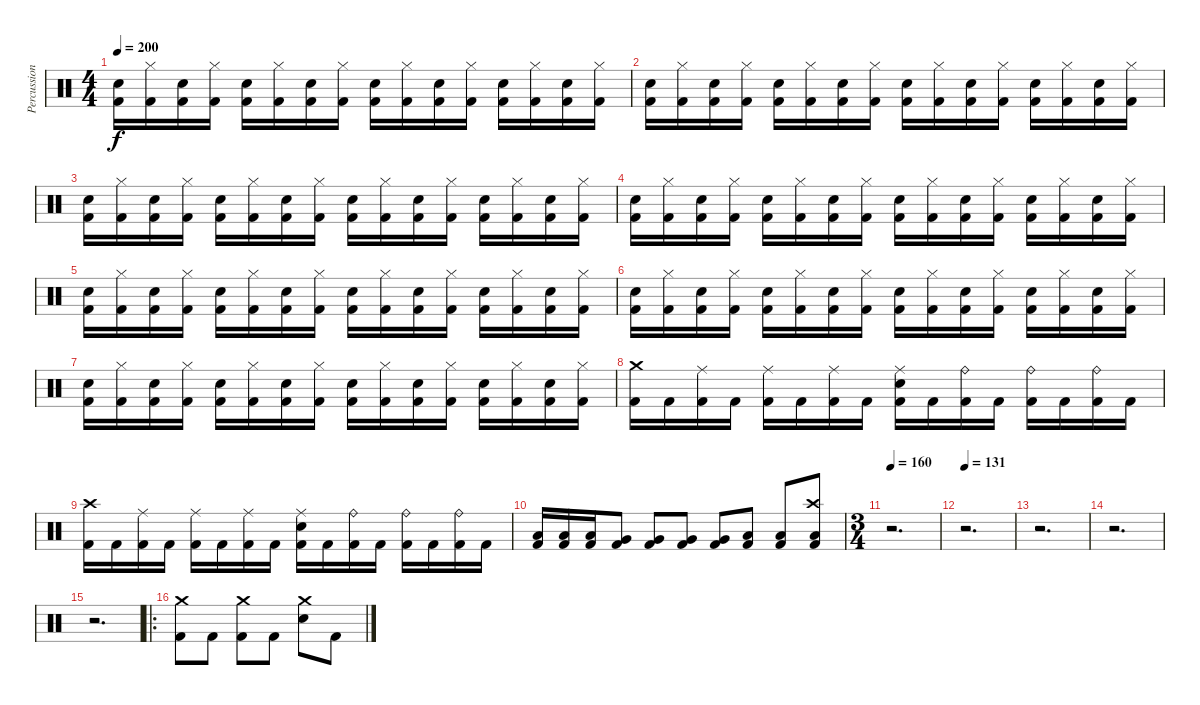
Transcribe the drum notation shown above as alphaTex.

\track ("Percussion" "Percussion") {instrument percussion}
\staff {score}
\articulation defaults
\ts (4 4)
\tempo 200
\clef neutral
\ks c
("Electric Snare (hit)" "Kick (hit) 2").16{dy f} ("Hi-Hat (closed)" "Kick (hit) 2").16 ("Electric Snare (hit)" "Kick (hit) 2").16 ("Hi-Hat (closed)" "Kick (hit) 2").16 ("Electric Snare (hit)" "Kick (hit) 2").16 ("Hi-Hat (closed)" "Kick (hit) 2").16 ("Electric Snare (hit)" "Kick (hit) 2").16 ("Hi-Hat (closed)" "Kick (hit) 2").16 ("Electric Snare (hit)" "Kick (hit) 2").16 ("Hi-Hat (closed)" "Kick (hit) 2").16 ("Electric Snare (hit)" "Kick (hit) 2").16 ("Hi-Hat (closed)" "Kick (hit) 2").16 ("Electric Snare (hit)" "Kick (hit) 2").16 ("Hi-Hat (closed)" "Kick (hit) 2").16 ("Electric Snare (hit)" "Kick (hit) 2").16 ("Hi-Hat (closed)" "Kick (hit) 2").16 |
("Electric Snare (hit)" "Kick (hit) 2").16 ("Hi-Hat (closed)" "Kick (hit) 2").16 ("Electric Snare (hit)" "Kick (hit) 2").16 ("Hi-Hat (closed)" "Kick (hit) 2").16 ("Electric Snare (hit)" "Kick (hit) 2").16 ("Hi-Hat (closed)" "Kick (hit) 2").16 ("Electric Snare (hit)" "Kick (hit) 2").16 ("Hi-Hat (closed)" "Kick (hit) 2").16 ("Electric Snare (hit)" "Kick (hit) 2").16 ("Hi-Hat (closed)" "Kick (hit) 2").16 ("Electric Snare (hit)" "Kick (hit) 2").16 ("Hi-Hat (closed)" "Kick (hit) 2").16 ("Electric Snare (hit)" "Kick (hit) 2").16 ("Hi-Hat (closed)" "Kick (hit) 2").16 ("Electric Snare (hit)" "Kick (hit) 2").16 ("Hi-Hat (closed)" "Kick (hit) 2").16 |
("Electric Snare (hit)" "Kick (hit) 2").16 ("Hi-Hat (closed)" "Kick (hit) 2").16 ("Electric Snare (hit)" "Kick (hit) 2").16 ("Hi-Hat (closed)" "Kick (hit) 2").16 ("Electric Snare (hit)" "Kick (hit) 2").16 ("Hi-Hat (closed)" "Kick (hit) 2").16 ("Electric Snare (hit)" "Kick (hit) 2").16 ("Hi-Hat (closed)" "Kick (hit) 2").16 ("Electric Snare (hit)" "Kick (hit) 2").16 ("Hi-Hat (closed)" "Kick (hit) 2").16 ("Electric Snare (hit)" "Kick (hit) 2").16 ("Hi-Hat (closed)" "Kick (hit) 2").16 ("Electric Snare (hit)" "Kick (hit) 2").16 ("Hi-Hat (closed)" "Kick (hit) 2").16 ("Electric Snare (hit)" "Kick (hit) 2").16 ("Hi-Hat (closed)" "Kick (hit) 2").16 |
("Electric Snare (hit)" "Kick (hit) 2").16 ("Hi-Hat (closed)" "Kick (hit) 2").16 ("Electric Snare (hit)" "Kick (hit) 2").16 ("Hi-Hat (closed)" "Kick (hit) 2").16 ("Electric Snare (hit)" "Kick (hit) 2").16 ("Hi-Hat (closed)" "Kick (hit) 2").16 ("Electric Snare (hit)" "Kick (hit) 2").16 ("Hi-Hat (closed)" "Kick (hit) 2").16 ("Electric Snare (hit)" "Kick (hit) 2").16 ("Hi-Hat (closed)" "Kick (hit) 2").16 ("Electric Snare (hit)" "Kick (hit) 2").16 ("Hi-Hat (closed)" "Kick (hit) 2").16 ("Electric Snare (hit)" "Kick (hit) 2").16 ("Hi-Hat (closed)" "Kick (hit) 2").16 ("Electric Snare (hit)" "Kick (hit) 2").16 ("Hi-Hat (closed)" "Kick (hit) 2").16 |
("Electric Snare (hit)" "Kick (hit) 2").16 ("Hi-Hat (closed)" "Kick (hit) 2").16 ("Electric Snare (hit)" "Kick (hit) 2").16 ("Hi-Hat (closed)" "Kick (hit) 2").16 ("Electric Snare (hit)" "Kick (hit) 2").16 ("Hi-Hat (closed)" "Kick (hit) 2").16 ("Electric Snare (hit)" "Kick (hit) 2").16 ("Hi-Hat (closed)" "Kick (hit) 2").16 ("Electric Snare (hit)" "Kick (hit) 2").16 ("Hi-Hat (closed)" "Kick (hit) 2").16 ("Electric Snare (hit)" "Kick (hit) 2").16 ("Hi-Hat (closed)" "Kick (hit) 2").16 ("Electric Snare (hit)" "Kick (hit) 2").16 ("Hi-Hat (closed)" "Kick (hit) 2").16 ("Electric Snare (hit)" "Kick (hit) 2").16 ("Hi-Hat (closed)" "Kick (hit) 2").16 |
("Electric Snare (hit)" "Kick (hit) 2").16 ("Hi-Hat (closed)" "Kick (hit) 2").16 ("Electric Snare (hit)" "Kick (hit) 2").16 ("Hi-Hat (closed)" "Kick (hit) 2").16 ("Electric Snare (hit)" "Kick (hit) 2").16 ("Hi-Hat (closed)" "Kick (hit) 2").16 ("Electric Snare (hit)" "Kick (hit) 2").16 ("Hi-Hat (closed)" "Kick (hit) 2").16 ("Electric Snare (hit)" "Kick (hit) 2").16 ("Hi-Hat (closed)" "Kick (hit) 2").16 ("Electric Snare (hit)" "Kick (hit) 2").16 ("Hi-Hat (closed)" "Kick (hit) 2").16 ("Electric Snare (hit)" "Kick (hit) 2").16 ("Hi-Hat (closed)" "Kick (hit) 2").16 ("Electric Snare (hit)" "Kick (hit) 2").16 ("Hi-Hat (closed)" "Kick (hit) 2").16 |
("Electric Snare (hit)" "Kick (hit) 2").16 ("Hi-Hat (closed)" "Kick (hit) 2").16 ("Electric Snare (hit)" "Kick (hit) 2").16 ("Hi-Hat (closed)" "Kick (hit) 2").16 ("Electric Snare (hit)" "Kick (hit) 2").16 ("Hi-Hat (closed)" "Kick (hit) 2").16 ("Electric Snare (hit)" "Kick (hit) 2").16 ("Hi-Hat (closed)" "Kick (hit) 2").16 ("Electric Snare (hit)" "Kick (hit) 2").16 ("Hi-Hat (closed)" "Kick (hit) 2").16 ("Electric Snare (hit)" "Kick (hit) 2").16 ("Hi-Hat (closed)" "Kick (hit) 2").16 ("Electric Snare (hit)" "Kick (hit) 2").16 ("Hi-Hat (closed)" "Kick (hit) 2").16 ("Electric Snare (hit)" "Kick (hit) 2").16 ("Hi-Hat (closed)" "Kick (hit) 2").16 |
("Crash medium (hit)" "Kick (hit) 2").16 "Kick (hit) 2".16 ("Ride (middle)" "Kick (hit) 2").16 "Kick (hit) 2".16 ("Ride (middle)" "Kick (hit) 2").16 "Kick (hit) 2".16 ("Ride (middle)" "Kick (hit) 2").16 "Kick (hit) 2".16 ("Ride (middle)" "Electric Snare (hit)" "Kick (hit) 2").16 "Kick (hit) 2".16 ("Ride (bell)" "Kick (hit) 2").16 "Kick (hit) 2".16 ("Ride (bell)" "Kick (hit) 2").16 "Kick (hit) 2".16 ("Ride (bell)" "Kick (hit) 2").16 "Kick (hit) 2".16 |
("Crash high (hit)" "Kick (hit) 2").16 "Kick (hit) 2".16 ("Ride (middle)" "Kick (hit) 2").16 "Kick (hit) 2".16 ("Ride (middle)" "Kick (hit) 2").16 "Kick (hit) 2".16 ("Ride (middle)" "Kick (hit) 2").16 "Kick (hit) 2".16 ("Ride (middle)" "Electric Snare (hit)" "Kick (hit) 2").16 "Kick (hit) 2".16 ("Ride (bell)" "Kick (hit) 2").16 "Kick (hit) 2".16 ("Ride (bell)" "Kick (hit) 2").16 "Kick (hit) 2".16 ("Ride (bell)" "Kick (hit) 2").16 "Kick (hit) 2".16 |
("Low Tom (hit)" "Kick (hit) 2").16 ("Low Tom (hit)" "Kick (hit) 2").16 ("Low Tom (hit)" "Kick (hit) 2").16 ("Very Low Tom (hit)" "Kick (hit) 2").8 ("Very Low Tom (hit)" "Kick (hit) 2").8 ("Very Low Tom (hit)" "Kick (hit) 2").8 ("Very Low Tom (hit)" "Kick (hit) 2").8 ("Low Floor Tom (hit)" "Kick (hit) 2").8 ("Low Floor Tom (hit)" "Kick (hit) 2").8 ("Crash high (hit)" "Low Floor Tom (hit)" "Kick (hit) 2").8 |
\ts (3 4)
\tempo 160
r.2{d} |
\tempo 131
r.2{d} |
r.2{d} |
r.2{d} |
r.2{d} |
\ro
("Crash medium (hit)" "Kick (hit) 2").8 "Kick (hit) 2".8 ("Crash medium (hit)" "Kick (hit) 2").8 "Kick (hit) 2".8 ("Crash medium (hit)" "Electric Snare (hit)").8 "Kick (hit) 2".8
